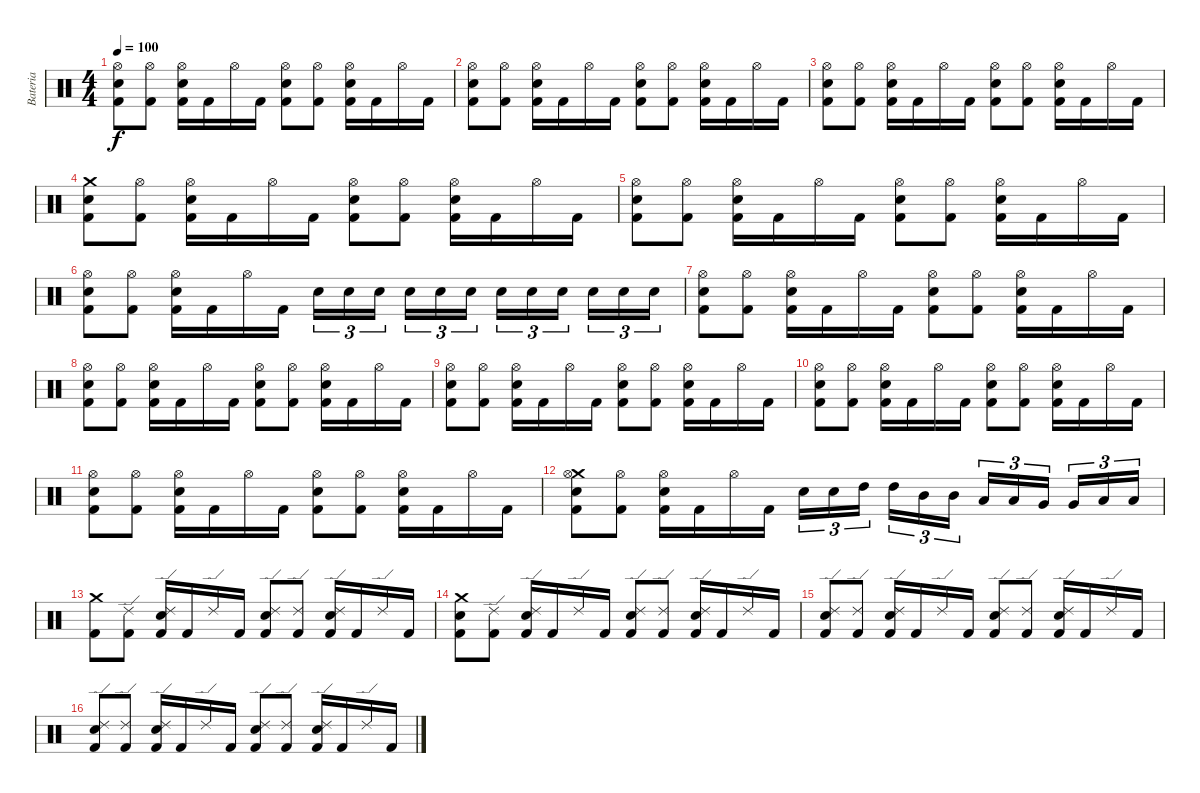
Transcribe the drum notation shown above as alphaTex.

\track ("Bateria" "Bateria") {instrument percussion}
\staff {score}
\articulation defaults
\ts (4 4)
\tempo 100
\clef neutral
\ks c
("Hi-Hat (open)" "Electric Snare (hit)" "Kick (hit) 2").8{dy f} ("Hi-Hat (open)" "Kick (hit) 2").8 ("Hi-Hat (open)" "Electric Snare (hit)" "Kick (hit) 2").16 "Kick (hit) 2".16 "Hi-Hat (open)".16 "Kick (hit) 2".16 ("Hi-Hat (open)" "Electric Snare (hit)" "Kick (hit) 2").8 ("Hi-Hat (open)" "Kick (hit) 2").8 ("Hi-Hat (open)" "Electric Snare (hit)" "Kick (hit) 2").16 "Kick (hit) 2".16 "Hi-Hat (open)".16 "Kick (hit) 2".16 |
("Hi-Hat (open)" "Electric Snare (hit)" "Kick (hit) 2").8 ("Hi-Hat (open)" "Kick (hit) 2").8 ("Hi-Hat (open)" "Electric Snare (hit)" "Kick (hit) 2").16 "Kick (hit) 2".16 "Hi-Hat (open)".16 "Kick (hit) 2".16 ("Hi-Hat (open)" "Electric Snare (hit)" "Kick (hit) 2").8 ("Hi-Hat (open)" "Kick (hit) 2").8 ("Hi-Hat (open)" "Electric Snare (hit)" "Kick (hit) 2").16 "Kick (hit) 2".16 "Hi-Hat (open)".16 "Kick (hit) 2".16 |
("Hi-Hat (open)" "Electric Snare (hit)" "Kick (hit) 2").8 ("Hi-Hat (open)" "Kick (hit) 2").8 ("Hi-Hat (open)" "Electric Snare (hit)" "Kick (hit) 2").16 "Kick (hit) 2".16 "Hi-Hat (open)".16 "Kick (hit) 2".16 ("Hi-Hat (open)" "Electric Snare (hit)" "Kick (hit) 2").8 ("Hi-Hat (open)" "Kick (hit) 2").8 ("Hi-Hat (open)" "Electric Snare (hit)" "Kick (hit) 2").16 "Kick (hit) 2".16 "Hi-Hat (open)".16 "Kick (hit) 2".16 |
("Crash medium (hit)" "Electric Snare (hit)" "Kick (hit) 2").8 ("Hi-Hat (open)" "Kick (hit) 2").8 ("Hi-Hat (open)" "Electric Snare (hit)" "Kick (hit) 2").16 "Kick (hit) 2".16 "Hi-Hat (open)".16 "Kick (hit) 2".16 ("Hi-Hat (open)" "Electric Snare (hit)" "Kick (hit) 2").8 ("Hi-Hat (open)" "Kick (hit) 2").8 ("Hi-Hat (open)" "Electric Snare (hit)" "Kick (hit) 2").16 "Kick (hit) 2".16 "Hi-Hat (open)".16 "Kick (hit) 2".16 |
("Hi-Hat (open)" "Electric Snare (hit)" "Kick (hit) 2").8 ("Hi-Hat (open)" "Kick (hit) 2").8 ("Hi-Hat (open)" "Electric Snare (hit)" "Kick (hit) 2").16 "Kick (hit) 2".16 "Hi-Hat (open)".16 "Kick (hit) 2".16 ("Hi-Hat (open)" "Electric Snare (hit)" "Kick (hit) 2").8 ("Hi-Hat (open)" "Kick (hit) 2").8 ("Hi-Hat (open)" "Electric Snare (hit)" "Kick (hit) 2").16 "Kick (hit) 2".16 "Hi-Hat (open)".16 "Kick (hit) 2".16 |
("Hi-Hat (open)" "Electric Snare (hit)" "Kick (hit) 2").8 ("Hi-Hat (open)" "Kick (hit) 2").8 ("Hi-Hat (open)" "Electric Snare (hit)" "Kick (hit) 2").16 "Kick (hit) 2".16 "Hi-Hat (open)".16 "Kick (hit) 2".16 "Electric Snare (hit)".16{tu (3 2)} "Electric Snare (hit)".16{tu (3 2)} "Electric Snare (hit)".16{tu (3 2)} "Electric Snare (hit)".16{tu (3 2)} "Electric Snare (hit)".16{tu (3 2)} "Electric Snare (hit)".16{tu (3 2)} "Electric Snare (hit)".16{tu (3 2)} "Electric Snare (hit)".16{tu (3 2)} "Electric Snare (hit)".16{tu (3 2)} "Electric Snare (hit)".16{tu (3 2)} "Electric Snare (hit)".16{tu (3 2)} "Electric Snare (hit)".16{tu (3 2)} |
("Hi-Hat (open)" "Electric Snare (hit)" "Kick (hit) 2").8 ("Hi-Hat (open)" "Kick (hit) 2").8 ("Hi-Hat (open)" "Electric Snare (hit)" "Kick (hit) 2").16 "Kick (hit) 2".16 "Hi-Hat (open)".16 "Kick (hit) 2".16 ("Hi-Hat (open)" "Electric Snare (hit)" "Kick (hit) 2").8 ("Hi-Hat (open)" "Kick (hit) 2").8 ("Hi-Hat (open)" "Electric Snare (hit)" "Kick (hit) 2").16 "Kick (hit) 2".16 "Hi-Hat (open)".16 "Kick (hit) 2".16 |
("Hi-Hat (open)" "Electric Snare (hit)" "Kick (hit) 2").8 ("Hi-Hat (open)" "Kick (hit) 2").8 ("Hi-Hat (open)" "Electric Snare (hit)" "Kick (hit) 2").16 "Kick (hit) 2".16 "Hi-Hat (open)".16 "Kick (hit) 2".16 ("Hi-Hat (open)" "Electric Snare (hit)" "Kick (hit) 2").8 ("Hi-Hat (open)" "Kick (hit) 2").8 ("Hi-Hat (open)" "Electric Snare (hit)" "Kick (hit) 2").16 "Kick (hit) 2".16 "Hi-Hat (open)".16 "Kick (hit) 2".16 |
("Hi-Hat (open)" "Electric Snare (hit)" "Kick (hit) 2").8 ("Hi-Hat (open)" "Kick (hit) 2").8 ("Hi-Hat (open)" "Electric Snare (hit)" "Kick (hit) 2").16 "Kick (hit) 2".16 "Hi-Hat (open)".16 "Kick (hit) 2".16 ("Hi-Hat (open)" "Electric Snare (hit)" "Kick (hit) 2").8 ("Hi-Hat (open)" "Kick (hit) 2").8 ("Hi-Hat (open)" "Electric Snare (hit)" "Kick (hit) 2").16 "Kick (hit) 2".16 "Hi-Hat (open)".16 "Kick (hit) 2".16 |
("Hi-Hat (open)" "Electric Snare (hit)" "Kick (hit) 2").8 ("Hi-Hat (open)" "Kick (hit) 2").8 ("Hi-Hat (open)" "Electric Snare (hit)" "Kick (hit) 2").16 "Kick (hit) 2".16 "Hi-Hat (open)".16 "Kick (hit) 2".16 ("Hi-Hat (open)" "Electric Snare (hit)" "Kick (hit) 2").8 ("Hi-Hat (open)" "Kick (hit) 2").8 ("Hi-Hat (open)" "Electric Snare (hit)" "Kick (hit) 2").16 "Kick (hit) 2".16 "Hi-Hat (open)".16 "Kick (hit) 2".16 |
("Hi-Hat (open)" "Electric Snare (hit)" "Kick (hit) 2").8 ("Hi-Hat (open)" "Kick (hit) 2").8 ("Hi-Hat (open)" "Electric Snare (hit)" "Kick (hit) 2").16 "Kick (hit) 2".16 "Hi-Hat (open)".16 "Kick (hit) 2".16 ("Hi-Hat (open)" "Electric Snare (hit)" "Kick (hit) 2").8 ("Hi-Hat (open)" "Kick (hit) 2").8 ("Hi-Hat (open)" "Electric Snare (hit)" "Kick (hit) 2").16 "Kick (hit) 2".16 "Hi-Hat (open)".16 "Kick (hit) 2".16 |
("Crash medium (hit)" "Hi-Hat (open)" "Electric Snare (hit)" "Kick (hit) 2").8 ("Hi-Hat (open)" "Kick (hit) 2").8 ("Hi-Hat (open)" "Electric Snare (hit)" "Kick (hit) 2").16 "Kick (hit) 2".16 "Hi-Hat (open)".16 "Kick (hit) 2".16 "Electric Snare (hit)".16{tu (3 2)} "Electric Snare (hit)".16{tu (3 2)} "High Tom (hit)".16{tu (3 2)} "High Tom (hit)".16{tu (3 2)} "Mid Tom (hit)".16{tu (3 2)} "Mid Tom (hit)".16{tu (3 2)} "Low Tom (hit)".16{tu (3 2)} "Low Tom (hit)".16{tu (3 2)} "Very Low Tom (hit)".16{tu (3 2)} "Very Low Tom (hit)".16{tu (3 2)} "Low Floor Tom (hit)".16{tu (3 2)} "Low Floor Tom (hit)".16{tu (3 2)} |
("Crash medium (hit)" "Kick (hit) 2").8 ("Ride (edge) 2" "Kick (hit) 2").8 ("Ride (edge) 2" "Electric Snare (hit)" "Kick (hit) 2").16 "Kick (hit) 2".16 "Ride (edge) 2".16 "Kick (hit) 2".16 ("Ride (edge) 2" "Electric Snare (hit)" "Kick (hit) 2").8 ("Ride (edge) 2" "Kick (hit) 2").8 ("Ride (edge) 2" "Electric Snare (hit)" "Kick (hit) 2").16 "Kick (hit) 2".16 "Ride (edge) 2".16 "Kick (hit) 2".16 |
("Crash medium (hit)" "Electric Snare (hit)" "Kick (hit) 2").8 ("Ride (edge) 2" "Kick (hit) 2").8 ("Ride (edge) 2" "Electric Snare (hit)" "Kick (hit) 2").16 "Kick (hit) 2".16 "Ride (edge) 2".16 "Kick (hit) 2".16 ("Ride (edge) 2" "Electric Snare (hit)" "Kick (hit) 2").8 ("Ride (edge) 2" "Kick (hit) 2").8 ("Ride (edge) 2" "Electric Snare (hit)" "Kick (hit) 2").16 "Kick (hit) 2".16 "Ride (edge) 2".16 "Kick (hit) 2".16 |
("Ride (edge) 2" "Electric Snare (hit)" "Kick (hit) 2").8 ("Ride (edge) 2" "Kick (hit) 2").8 ("Ride (edge) 2" "Electric Snare (hit)" "Kick (hit) 2").16 "Kick (hit) 2".16 "Ride (edge) 2".16 "Kick (hit) 2".16 ("Ride (edge) 2" "Electric Snare (hit)" "Kick (hit) 2").8 ("Ride (edge) 2" "Kick (hit) 2").8 ("Ride (edge) 2" "Electric Snare (hit)" "Kick (hit) 2").16 "Kick (hit) 2".16 "Ride (edge) 2".16 "Kick (hit) 2".16 |
("Ride (edge) 2" "Electric Snare (hit)" "Kick (hit) 2").8 ("Ride (edge) 2" "Kick (hit) 2").8 ("Ride (edge) 2" "Electric Snare (hit)" "Kick (hit) 2").16 "Kick (hit) 2".16 "Ride (edge) 2".16 "Kick (hit) 2".16 ("Ride (edge) 2" "Electric Snare (hit)" "Kick (hit) 2").8 ("Ride (edge) 2" "Kick (hit) 2").8 ("Ride (edge) 2" "Electric Snare (hit)" "Kick (hit) 2").16 "Kick (hit) 2".16 "Ride (edge) 2".16 "Kick (hit) 2".16
